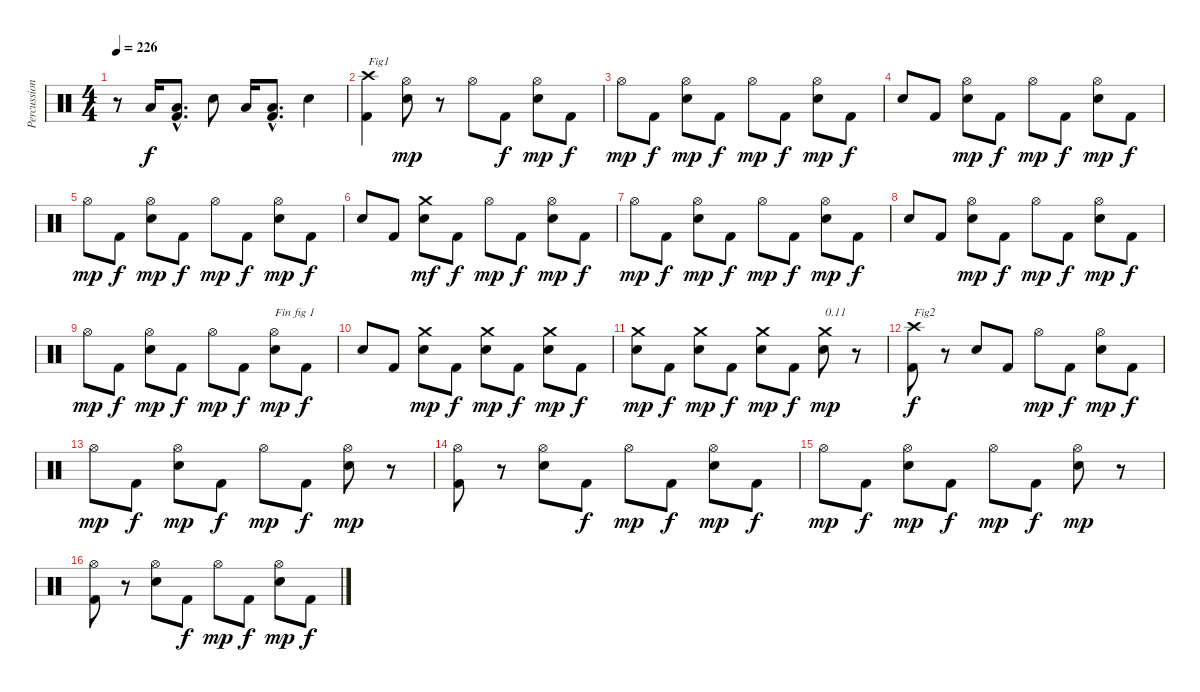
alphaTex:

\track ("Percussions" "Percussion") {instrument percussion}
\staff {score}
\articulation defaults
\ts (4 4)
\tempo 226
\clef neutral
\ks c
r.8{dy f} "Low Floor Tom (hit)".16 ("Low Floor Tom (hit)"{hac} "Kick (hit) 2"{hac}).8{d} "Snare (hit) 2".8 "Low Floor Tom (hit)".16 ("Low Floor Tom (hit)"{hac} "Kick (hit) 2"{hac}).8{d} "Snare (hit) 2".4 |
("Kick (hit) 2" "Crash high (hit)").4{txt "Fig1 "} ("Electric Snare (hit)" "Hi-Hat (open)").8{dy mp} r.8 "Hi-Hat (open)".8 "Kick (hit) 2".8{dy f} ("Electric Snare (hit)" "Hi-Hat (open)").8{dy mp} "Kick (hit) 2".8{dy f} |
"Hi-Hat (open)".8{dy mp} "Kick (hit) 2".8{dy f} ("Electric Snare (hit)" "Hi-Hat (open)").8{dy mp} "Kick (hit) 2".8{dy f} "Hi-Hat (open)".8{dy mp} "Kick (hit) 2".8{dy f} ("Electric Snare (hit)" "Hi-Hat (open)").8{dy mp} "Kick (hit) 2".8{dy f} |
"Electric Snare (hit)".8 "Kick (hit) 2".8 ("Electric Snare (hit)" "Hi-Hat (open)").8{dy mp} "Kick (hit) 2".8{dy f} "Hi-Hat (open)".8{dy mp} "Kick (hit) 2".8{dy f} ("Electric Snare (hit)" "Hi-Hat (open)").8{dy mp} "Kick (hit) 2".8{dy f} |
"Hi-Hat (open)".8{dy mp} "Kick (hit) 2".8{dy f} ("Electric Snare (hit)" "Hi-Hat (open)").8{dy mp} "Kick (hit) 2".8{dy f} "Hi-Hat (open)".8{dy mp} "Kick (hit) 2".8{dy f} ("Electric Snare (hit)" "Hi-Hat (open)").8{dy mp} "Kick (hit) 2".8{dy f} |
"Electric Snare (hit)".8 "Kick (hit) 2".8 ("Electric Snare (hit)" "Crash medium (hit)").8{dy mf} "Kick (hit) 2".8{dy f} "Hi-Hat (open)".8{dy mp} "Kick (hit) 2".8{dy f} ("Electric Snare (hit)" "Hi-Hat (open)").8{dy mp} "Kick (hit) 2".8{dy f} |
"Hi-Hat (open)".8{dy mp} "Kick (hit) 2".8{dy f} ("Electric Snare (hit)" "Hi-Hat (open)").8{dy mp} "Kick (hit) 2".8{dy f} "Hi-Hat (open)".8{dy mp} "Kick (hit) 2".8{dy f} ("Electric Snare (hit)" "Hi-Hat (open)").8{dy mp} "Kick (hit) 2".8{dy f} |
"Electric Snare (hit)".8 "Kick (hit) 2".8 ("Electric Snare (hit)" "Hi-Hat (open)").8{dy mp} "Kick (hit) 2".8{dy f} "Hi-Hat (open)".8{dy mp} "Kick (hit) 2".8{dy f} ("Electric Snare (hit)" "Hi-Hat (open)").8{dy mp} "Kick (hit) 2".8{dy f} |
"Hi-Hat (open)".8{dy mp} "Kick (hit) 2".8{dy f} ("Electric Snare (hit)" "Hi-Hat (open)").8{dy mp} "Kick (hit) 2".8{dy f} "Hi-Hat (open)".8{dy mp} "Kick (hit) 2".8{dy f} ("Electric Snare (hit)" "Hi-Hat (open)").8{txt "Fin fig 1" dy mp} "Kick (hit) 2".8{dy f} |
"Electric Snare (hit)".8 "Kick (hit) 2".8 ("Electric Snare (hit)" "Crash medium (hit)").8{dy mp} "Kick (hit) 2".8{dy f} ("Electric Snare (hit)" "Crash medium (hit)").8{dy mp} "Kick (hit) 2".8{dy f} ("Electric Snare (hit)" "Crash medium (hit)").8{dy mp} "Kick (hit) 2".8{dy f} |
("Electric Snare (hit)" "Crash medium (hit)").8{dy mp} "Kick (hit) 2".8{dy f} ("Electric Snare (hit)" "Crash medium (hit)").8{dy mp} "Kick (hit) 2".8{dy f} ("Electric Snare (hit)" "Crash medium (hit)").8{dy mp} "Kick (hit) 2".8{dy f} ("Electric Snare (hit)" "Crash medium (hit)").8{txt "0.11" dy mp} r.8 |
("Kick (hit) 2" "Crash high (hit)").8{txt "Fig2" dy f} r.8 "Electric Snare (hit)".8 "Kick (hit) 2".8 "Hi-Hat (open)".8{dy mp} "Kick (hit) 2".8{dy f} ("Electric Snare (hit)" "Hi-Hat (open)").8{dy mp} "Kick (hit) 2".8{dy f} |
"Hi-Hat (open)".8{dy mp} "Kick (hit) 2".8{dy f} ("Electric Snare (hit)" "Hi-Hat (open)").8{dy mp} "Kick (hit) 2".8{dy f} "Hi-Hat (open)".8{dy mp} "Kick (hit) 2".8{dy f} ("Electric Snare (hit)" "Hi-Hat (open)").8{dy mp} r.8 |
("Kick (hit) 2" "Hi-Hat (open)").8 r.8 ("Electric Snare (hit)" "Hi-Hat (open)").8 "Kick (hit) 2".8{dy f} "Hi-Hat (open)".8{dy mp} "Kick (hit) 2".8{dy f} ("Electric Snare (hit)" "Hi-Hat (open)").8{dy mp} "Kick (hit) 2".8{dy f} |
"Hi-Hat (open)".8{dy mp} "Kick (hit) 2".8{dy f} ("Electric Snare (hit)" "Hi-Hat (open)").8{dy mp} "Kick (hit) 2".8{dy f} "Hi-Hat (open)".8{dy mp} "Kick (hit) 2".8{dy f} ("Electric Snare (hit)" "Hi-Hat (open)").8{dy mp} r.8 |
("Kick (hit) 2" "Hi-Hat (open)").8 r.8 ("Electric Snare (hit)" "Hi-Hat (open)").8 "Kick (hit) 2".8{dy f} "Hi-Hat (open)".8{dy mp} "Kick (hit) 2".8{dy f} ("Electric Snare (hit)" "Hi-Hat (open)").8{dy mp} "Kick (hit) 2".8{dy f}
